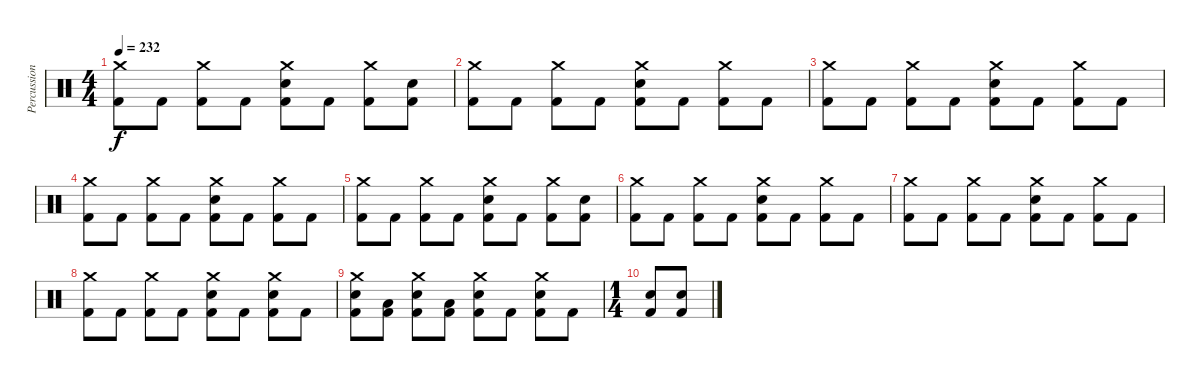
\track ("Percussions" "Percussion") {instrument percussion}
\staff {score}
\articulation defaults
\ts (4 4)
\tempo 232
\clef neutral
\ks c
("Crash medium (hit)" "Kick (hit) 2").8{dy f} "Kick (hit) 2".8 ("Crash medium (hit)" "Kick (hit) 2").8 "Kick (hit) 2".8 ("Crash medium (hit)" "Electric Snare (hit)" "Kick (hit) 2").8 "Kick (hit) 2".8 ("Crash medium (hit)" "Kick (hit) 2").8 ("Electric Snare (hit)" "Kick (hit) 2").8 |
("Crash medium (hit)" "Kick (hit) 2").8 "Kick (hit) 2".8 ("Crash medium (hit)" "Kick (hit) 2").8 "Kick (hit) 2".8 ("Crash medium (hit)" "Electric Snare (hit)" "Kick (hit) 2").8 "Kick (hit) 2".8 ("Crash medium (hit)" "Kick (hit) 2").8 "Kick (hit) 2".8 |
("Crash medium (hit)" "Kick (hit) 2").8 "Kick (hit) 2".8 ("Crash medium (hit)" "Kick (hit) 2").8 "Kick (hit) 2".8 ("Crash medium (hit)" "Electric Snare (hit)" "Kick (hit) 2").8 "Kick (hit) 2".8 ("Crash medium (hit)" "Kick (hit) 2").8 "Kick (hit) 2".8 |
("Crash medium (hit)" "Kick (hit) 2").8 "Kick (hit) 2".8 ("Crash medium (hit)" "Kick (hit) 2").8 "Kick (hit) 2".8 ("Crash medium (hit)" "Electric Snare (hit)" "Kick (hit) 2").8 "Kick (hit) 2".8 ("Crash medium (hit)" "Kick (hit) 2").8 "Kick (hit) 2".8 |
("Crash medium (hit)" "Kick (hit) 2").8 "Kick (hit) 2".8 ("Crash medium (hit)" "Kick (hit) 2").8 "Kick (hit) 2".8 ("Crash medium (hit)" "Electric Snare (hit)" "Kick (hit) 2").8 "Kick (hit) 2".8 ("Crash medium (hit)" "Kick (hit) 2").8 ("Electric Snare (hit)" "Kick (hit) 2").8 |
("Crash medium (hit)" "Kick (hit) 2").8 "Kick (hit) 2".8 ("Crash medium (hit)" "Kick (hit) 2").8 "Kick (hit) 2".8 ("Crash medium (hit)" "Electric Snare (hit)" "Kick (hit) 2").8 "Kick (hit) 2".8 ("Crash medium (hit)" "Kick (hit) 2").8 "Kick (hit) 2".8 |
("Crash medium (hit)" "Kick (hit) 2").8 "Kick (hit) 2".8 ("Crash medium (hit)" "Kick (hit) 2").8 "Kick (hit) 2".8 ("Crash medium (hit)" "Electric Snare (hit)" "Kick (hit) 2").8 "Kick (hit) 2".8 ("Crash medium (hit)" "Kick (hit) 2").8 "Kick (hit) 2".8 |
("Crash medium (hit)" "Kick (hit) 2").8 "Kick (hit) 2".8 ("Crash medium (hit)" "Kick (hit) 2").8 "Kick (hit) 2".8 ("Crash medium (hit)" "Electric Snare (hit)" "Kick (hit) 2").8 "Kick (hit) 2".8 ("Crash medium (hit)" "Electric Snare (hit)" "Kick (hit) 2").8 "Kick (hit) 2".8 |
("Crash medium (hit)" "Electric Snare (hit)" "Kick (hit) 2").8 ("Low Tom (hit)" "Kick (hit) 2").8 ("Crash medium (hit)" "Electric Snare (hit)" "Kick (hit) 2").8 ("Low Floor Tom (hit)" "Kick (hit) 2").8 ("Crash medium (hit)" "Electric Snare (hit)" "Kick (hit) 2").8 "Kick (hit) 2".8 ("Crash medium (hit)" "Electric Snare (hit)" "Kick (hit) 2").8 "Kick (hit) 2".8 |
\ts (1 4)
("Electric Snare (hit)" "Kick (hit) 2").8 ("Electric Snare (hit)" "Kick (hit) 2").8
